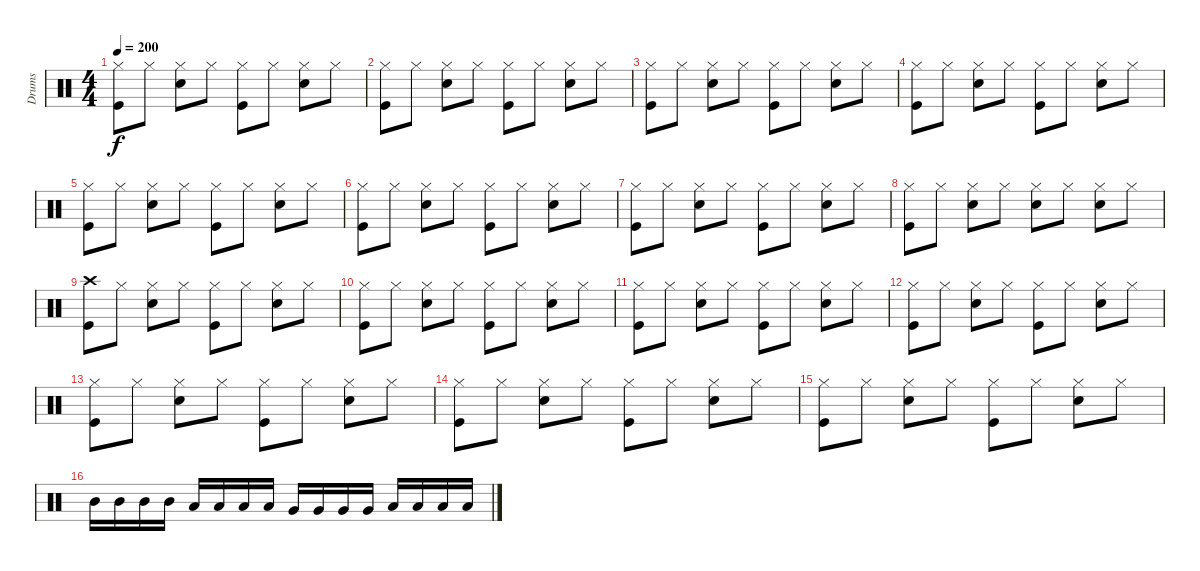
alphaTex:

\track ("Drums" "Drums") {instrument percussion}
\staff {score}
\articulation defaults
\ts (4 4)
\tempo 200
\clef neutral
\ks c
("Hi-Hat (closed)" "Kick (hit)").8{dy f} "Hi-Hat (closed)".8 ("Hi-Hat (closed)" "Electric Snare (hit)").8 "Hi-Hat (closed)".8 ("Hi-Hat (closed)" "Kick (hit)").8 "Hi-Hat (closed)".8 ("Hi-Hat (closed)" "Electric Snare (hit)").8 "Hi-Hat (closed)".8 |
("Hi-Hat (closed)" "Kick (hit)").8 "Hi-Hat (closed)".8 ("Hi-Hat (closed)" "Electric Snare (hit)").8 "Hi-Hat (closed)".8 ("Hi-Hat (closed)" "Kick (hit)").8 "Hi-Hat (closed)".8 ("Hi-Hat (closed)" "Electric Snare (hit)").8 "Hi-Hat (closed)".8 |
("Hi-Hat (closed)" "Kick (hit)").8 "Hi-Hat (closed)".8 ("Hi-Hat (closed)" "Electric Snare (hit)").8 "Hi-Hat (closed)".8 ("Hi-Hat (closed)" "Kick (hit)").8 "Hi-Hat (closed)".8 ("Hi-Hat (closed)" "Electric Snare (hit)").8 "Hi-Hat (closed)".8 |
("Hi-Hat (closed)" "Kick (hit)").8 "Hi-Hat (closed)".8 ("Hi-Hat (closed)" "Electric Snare (hit)").8 "Hi-Hat (closed)".8 ("Hi-Hat (closed)" "Kick (hit)").8 "Hi-Hat (closed)".8 ("Hi-Hat (closed)" "Electric Snare (hit)").8 "Hi-Hat (closed)".8 |
("Hi-Hat (closed)" "Kick (hit)").8 "Hi-Hat (closed)".8 ("Hi-Hat (closed)" "Electric Snare (hit)").8 "Hi-Hat (closed)".8 ("Hi-Hat (closed)" "Kick (hit)").8 "Hi-Hat (closed)".8 ("Hi-Hat (closed)" "Electric Snare (hit)").8 "Hi-Hat (closed)".8 |
("Hi-Hat (closed)" "Kick (hit)").8 "Hi-Hat (closed)".8 ("Hi-Hat (closed)" "Electric Snare (hit)").8 "Hi-Hat (closed)".8 ("Hi-Hat (closed)" "Kick (hit)").8 "Hi-Hat (closed)".8 ("Hi-Hat (closed)" "Electric Snare (hit)").8 "Hi-Hat (closed)".8 |
("Hi-Hat (closed)" "Kick (hit)").8 "Hi-Hat (closed)".8 ("Hi-Hat (closed)" "Electric Snare (hit)").8 "Hi-Hat (closed)".8 ("Hi-Hat (closed)" "Kick (hit)").8 "Hi-Hat (closed)".8 ("Hi-Hat (closed)" "Electric Snare (hit)").8 "Hi-Hat (closed)".8 |
("Hi-Hat (closed)" "Kick (hit)").8 "Hi-Hat (closed)".8 ("Hi-Hat (closed)" "Electric Snare (hit)").8 "Hi-Hat (closed)".8 ("Hi-Hat (closed)" "Electric Snare (hit)").8 "Hi-Hat (closed)".8 ("Hi-Hat (closed)" "Electric Snare (hit)").8 "Hi-Hat (closed)".8 |
("Crash high (hit)" "Kick (hit)").8 "Hi-Hat (closed)".8 ("Hi-Hat (closed)" "Electric Snare (hit)").8 "Hi-Hat (closed)".8 ("Hi-Hat (closed)" "Kick (hit)").8 "Hi-Hat (closed)".8 ("Hi-Hat (closed)" "Electric Snare (hit)").8 "Hi-Hat (closed)".8 |
("Hi-Hat (closed)" "Kick (hit)").8 "Hi-Hat (closed)".8 ("Hi-Hat (closed)" "Electric Snare (hit)").8 "Hi-Hat (closed)".8 ("Hi-Hat (closed)" "Kick (hit)").8 "Hi-Hat (closed)".8 ("Hi-Hat (closed)" "Electric Snare (hit)").8 "Hi-Hat (closed)".8 |
("Hi-Hat (closed)" "Kick (hit)").8 "Hi-Hat (closed)".8 ("Hi-Hat (closed)" "Electric Snare (hit)").8 "Hi-Hat (closed)".8 ("Hi-Hat (closed)" "Kick (hit)").8 "Hi-Hat (closed)".8 ("Hi-Hat (closed)" "Electric Snare (hit)").8 "Hi-Hat (closed)".8 |
("Hi-Hat (closed)" "Kick (hit)").8 "Hi-Hat (closed)".8 ("Hi-Hat (closed)" "Electric Snare (hit)").8 "Hi-Hat (closed)".8 ("Hi-Hat (closed)" "Kick (hit)").8 "Hi-Hat (closed)".8 ("Hi-Hat (closed)" "Electric Snare (hit)").8 "Hi-Hat (closed)".8 |
("Hi-Hat (closed)" "Kick (hit)").8 "Hi-Hat (closed)".8 ("Hi-Hat (closed)" "Electric Snare (hit)").8 "Hi-Hat (closed)".8 ("Hi-Hat (closed)" "Kick (hit)").8 "Hi-Hat (closed)".8 ("Hi-Hat (closed)" "Electric Snare (hit)").8 "Hi-Hat (closed)".8 |
("Hi-Hat (closed)" "Kick (hit)").8 "Hi-Hat (closed)".8 ("Hi-Hat (closed)" "Electric Snare (hit)").8 "Hi-Hat (closed)".8 ("Hi-Hat (closed)" "Kick (hit)").8 "Hi-Hat (closed)".8 ("Hi-Hat (closed)" "Electric Snare (hit)").8 "Hi-Hat (closed)".8 |
("Hi-Hat (closed)" "Kick (hit)").8 "Hi-Hat (closed)".8 ("Hi-Hat (closed)" "Electric Snare (hit)").8 "Hi-Hat (closed)".8 ("Hi-Hat (closed)" "Kick (hit)").8 "Hi-Hat (closed)".8 ("Hi-Hat (closed)" "Electric Snare (hit)").8 "Hi-Hat (closed)".8 |
"Mid Tom (hit)".16 "Mid Tom (hit)".16 "Mid Tom (hit)".16 "Mid Tom (hit)".16 "Low Tom (hit)".16 "Low Tom (hit)".16 "Low Tom (hit)".16 "Low Tom (hit)".16 "Very Low Tom (hit)".16 "Very Low Tom (hit)".16 "Very Low Tom (hit)".16 "Very Low Tom (hit)".16 "Low Floor Tom (hit)".16 "Low Floor Tom (hit)".16 "Low Floor Tom (hit)".16 "Low Floor Tom (hit)".16
